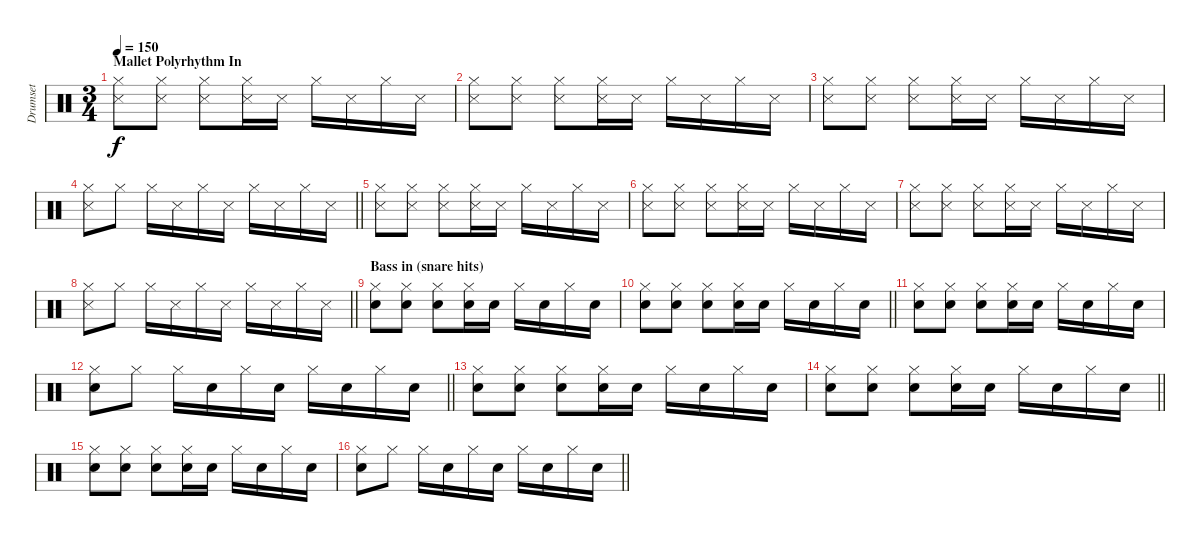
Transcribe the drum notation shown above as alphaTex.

\track ("Drumset" "Drumset") {instrument percussion}
\staff {score}
\articulation defaults
\ts (3 4)
\section ("" "Mallet Polyrhythm In")
\tempo 150
\clef neutral
\ks c
("Hi-Hat (closed)" "Snare (side stick) 3").8{dy f} ("Hi-Hat (closed)" "Snare (side stick) 3").8 ("Hi-Hat (closed)" "Snare (side stick) 3").8 ("Hi-Hat (closed)" "Snare (side stick) 3").16 "Snare (side stick) 3".16 "Hi-Hat (closed)".16 "Snare (side stick) 3".16 "Hi-Hat (closed)".16 "Snare (side stick) 3".16 |
("Hi-Hat (closed)" "Snare (side stick) 3").8 ("Hi-Hat (closed)" "Snare (side stick) 3").8 ("Hi-Hat (closed)" "Snare (side stick) 3").8 ("Hi-Hat (closed)" "Snare (side stick) 3").16 "Snare (side stick) 3".16 "Hi-Hat (closed)".16 "Snare (side stick) 3".16 "Hi-Hat (closed)".16 "Snare (side stick) 3".16 |
("Hi-Hat (closed)" "Snare (side stick) 3").8 ("Hi-Hat (closed)" "Snare (side stick) 3").8 ("Hi-Hat (closed)" "Snare (side stick) 3").8 ("Hi-Hat (closed)" "Snare (side stick) 3").16 "Snare (side stick) 3".16 "Hi-Hat (closed)".16 "Snare (side stick) 3".16 "Hi-Hat (closed)".16 "Snare (side stick) 3".16 |
\barLineRight lightlight
("Hi-Hat (closed)" "Snare (side stick) 3").8 "Hi-Hat (closed)".8 "Hi-Hat (closed)".16 "Snare (side stick) 3".16 "Hi-Hat (closed)".16 "Snare (side stick) 3".16 "Hi-Hat (closed)".16 "Snare (side stick) 3".16 "Hi-Hat (closed)".16 "Snare (side stick) 3".16 |
("Hi-Hat (closed)" "Snare (side stick) 3").8 ("Hi-Hat (closed)" "Snare (side stick) 3").8 ("Hi-Hat (closed)" "Snare (side stick) 3").8 ("Hi-Hat (closed)" "Snare (side stick) 3").16 "Snare (side stick) 3".16 "Hi-Hat (closed)".16 "Snare (side stick) 3".16 "Hi-Hat (closed)".16 "Snare (side stick) 3".16 |
("Hi-Hat (closed)" "Snare (side stick) 3").8 ("Hi-Hat (closed)" "Snare (side stick) 3").8 ("Hi-Hat (closed)" "Snare (side stick) 3").8 ("Hi-Hat (closed)" "Snare (side stick) 3").16 "Snare (side stick) 3".16 "Hi-Hat (closed)".16 "Snare (side stick) 3".16 "Hi-Hat (closed)".16 "Snare (side stick) 3".16 |
("Hi-Hat (closed)" "Snare (side stick) 3").8 ("Hi-Hat (closed)" "Snare (side stick) 3").8 ("Hi-Hat (closed)" "Snare (side stick) 3").8 ("Hi-Hat (closed)" "Snare (side stick) 3").16 "Snare (side stick) 3".16 "Hi-Hat (closed)".16 "Snare (side stick) 3".16 "Hi-Hat (closed)".16 "Snare (side stick) 3".16 |
\barLineRight lightlight
("Hi-Hat (closed)" "Snare (side stick) 3").8 "Hi-Hat (closed)".8 "Hi-Hat (closed)".16 "Snare (side stick) 3".16 "Hi-Hat (closed)".16 "Snare (side stick) 3".16 "Hi-Hat (closed)".16 "Snare (side stick) 3".16 "Hi-Hat (closed)".16 "Snare (side stick) 3".16 |
\section ("" "Bass in (snare hits)")
("Hi-Hat (closed)" "Snare (hit) 2").8 ("Hi-Hat (closed)" "Snare (hit) 2").8 ("Hi-Hat (closed)" "Snare (hit) 2").8 ("Hi-Hat (closed)" "Snare (hit) 2").16 "Snare (hit) 2".16 "Hi-Hat (closed)".16 "Snare (hit) 2".16 "Hi-Hat (closed)".16 "Snare (hit) 2".16 |
\barLineRight lightlight
("Hi-Hat (closed)" "Snare (hit) 2").8 ("Hi-Hat (closed)" "Snare (hit) 2").8 ("Hi-Hat (closed)" "Snare (hit) 2").8 ("Hi-Hat (closed)" "Snare (hit) 2").16 "Snare (hit) 2".16 "Hi-Hat (closed)".16 "Snare (hit) 2".16 "Hi-Hat (closed)".16 "Snare (hit) 2".16 |
("Hi-Hat (closed)" "Snare (hit) 2").8 ("Hi-Hat (closed)" "Snare (hit) 2").8 ("Hi-Hat (closed)" "Snare (hit) 2").8 ("Hi-Hat (closed)" "Snare (hit) 2").16 "Snare (hit) 2".16 "Hi-Hat (closed)".16 "Snare (hit) 2".16 "Hi-Hat (closed)".16 "Snare (hit) 2".16 |
\barLineRight lightlight
("Hi-Hat (closed)" "Snare (hit) 2").8 "Hi-Hat (closed)".8 "Hi-Hat (closed)".16 "Snare (hit) 2".16 "Hi-Hat (closed)".16 "Snare (hit) 2".16 "Hi-Hat (closed)".16 "Snare (hit) 2".16 "Hi-Hat (closed)".16 "Snare (hit) 2".16 |
("Hi-Hat (closed)" "Snare (hit) 2").8 ("Hi-Hat (closed)" "Snare (hit) 2").8 ("Hi-Hat (closed)" "Snare (hit) 2").8 ("Hi-Hat (closed)" "Snare (hit) 2").16 "Snare (hit) 2".16 "Hi-Hat (closed)".16 "Snare (hit) 2".16 "Hi-Hat (closed)".16 "Snare (hit) 2".16 |
\barLineRight lightlight
("Hi-Hat (closed)" "Snare (hit) 2").8 ("Hi-Hat (closed)" "Snare (hit) 2").8 ("Hi-Hat (closed)" "Snare (hit) 2").8 ("Hi-Hat (closed)" "Snare (hit) 2").16 "Snare (hit) 2".16 "Hi-Hat (closed)".16 "Snare (hit) 2".16 "Hi-Hat (closed)".16 "Snare (hit) 2".16 |
("Hi-Hat (closed)" "Snare (hit) 2").8 ("Hi-Hat (closed)" "Snare (hit) 2").8 ("Hi-Hat (closed)" "Snare (hit) 2").8 ("Hi-Hat (closed)" "Snare (hit) 2").16 "Snare (hit) 2".16 "Hi-Hat (closed)".16 "Snare (hit) 2".16 "Hi-Hat (closed)".16 "Snare (hit) 2".16 |
\barLineRight lightlight
("Hi-Hat (closed)" "Snare (hit) 2").8 "Hi-Hat (closed)".8 "Hi-Hat (closed)".16 "Snare (hit) 2".16 "Hi-Hat (closed)".16 "Snare (hit) 2".16 "Hi-Hat (closed)".16 "Snare (hit) 2".16 "Hi-Hat (closed)".16 "Snare (hit) 2".16
